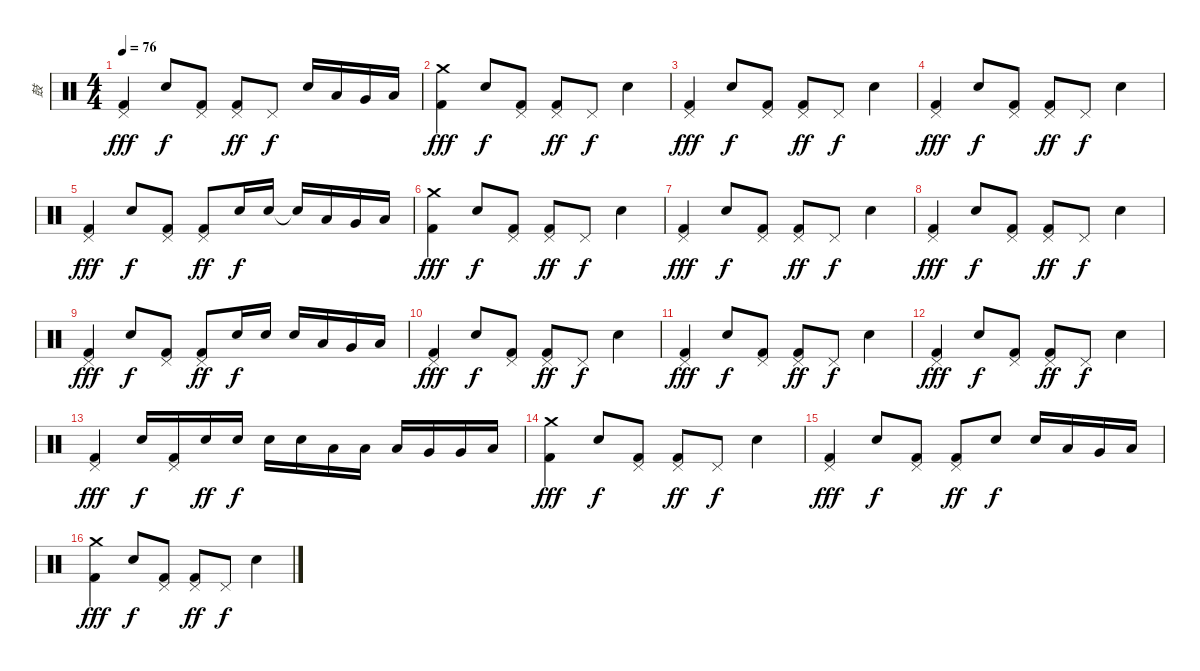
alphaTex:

\track ("鼓" "鼓") {instrument percussion}
\staff {score}
\articulation defaults
\ts (4 4)
\tempo 76
\clef neutral
\ks c
("Kick (hit) 2" "Pedal Hi-Hat (hit)").4{dy fff} "Electric Snare (hit)".8{dy f} ("Kick (hit) 2" "Pedal Hi-Hat (hit)").8 ("Kick (hit) 2" "Pedal Hi-Hat (hit)").8{dy ff} "Pedal Hi-Hat (hit)".8{dy f} "Electric Snare (hit)".16 "Low Tom (hit)".16 "Very Low Tom (hit)".16 "Low Floor Tom (hit)".16 |
("Kick (hit) 2" "Crash medium (hit)").4{dy fff} "Electric Snare (hit)".8{dy f} ("Kick (hit) 2" "Pedal Hi-Hat (hit)").8 ("Kick (hit) 2" "Pedal Hi-Hat (hit)").8{dy ff} "Pedal Hi-Hat (hit)".8{dy f} "Electric Snare (hit)".4 |
("Kick (hit) 2" "Pedal Hi-Hat (hit)").4{dy fff} "Electric Snare (hit)".8{dy f} ("Kick (hit) 2" "Pedal Hi-Hat (hit)").8 ("Kick (hit) 2" "Pedal Hi-Hat (hit)").8{dy ff} "Pedal Hi-Hat (hit)".8{dy f} "Electric Snare (hit)".4 |
("Kick (hit) 2" "Pedal Hi-Hat (hit)").4{dy fff} "Electric Snare (hit)".8{dy f} ("Kick (hit) 2" "Pedal Hi-Hat (hit)").8 ("Kick (hit) 2" "Pedal Hi-Hat (hit)").8{dy ff} "Pedal Hi-Hat (hit)".8{dy f} "Electric Snare (hit)".4 |
("Kick (hit) 2" "Pedal Hi-Hat (hit)").4{dy fff} "Electric Snare (hit)".8{dy f} ("Kick (hit) 2" "Pedal Hi-Hat (hit)").8 ("Kick (hit) 2" "Pedal Hi-Hat (hit)").8{dy ff} "Electric Snare (hit)".16{dy f} "Electric Snare (hit)".16 "Snare (hit)"{t}.16 "Low Tom (hit)".16 "Very Low Tom (hit)".16 "Low Floor Tom (hit)".16 |
("Kick (hit) 2" "Crash medium (hit)").4{dy fff} "Electric Snare (hit)".8{dy f} ("Kick (hit) 2" "Pedal Hi-Hat (hit)").8 ("Kick (hit) 2" "Pedal Hi-Hat (hit)").8{dy ff} "Pedal Hi-Hat (hit)".8{dy f} "Electric Snare (hit)".4 |
("Kick (hit) 2" "Pedal Hi-Hat (hit)").4{dy fff} "Electric Snare (hit)".8{dy f} ("Kick (hit) 2" "Pedal Hi-Hat (hit)").8 ("Kick (hit) 2" "Pedal Hi-Hat (hit)").8{dy ff} "Pedal Hi-Hat (hit)".8{dy f} "Electric Snare (hit)".4 |
("Kick (hit) 2" "Pedal Hi-Hat (hit)").4{dy fff} "Electric Snare (hit)".8{dy f} ("Kick (hit) 2" "Pedal Hi-Hat (hit)").8 ("Kick (hit) 2" "Pedal Hi-Hat (hit)").8{dy ff} "Pedal Hi-Hat (hit)".8{dy f} "Electric Snare (hit)".4 |
("Kick (hit) 2" "Pedal Hi-Hat (hit)").4{dy fff} "Electric Snare (hit)".8{dy f} ("Kick (hit) 2" "Pedal Hi-Hat (hit)").8 ("Kick (hit) 2" "Pedal Hi-Hat (hit)").8{dy ff} "Electric Snare (hit)".16{dy f} "Electric Snare (hit)".16 "Electric Snare (hit)".16 "Low Tom (hit)".16 "Very Low Tom (hit)".16 "Low Floor Tom (hit)".16 |
("Kick (hit) 2" "Pedal Hi-Hat (hit)").4{dy fff} "Electric Snare (hit)".8{dy f} ("Kick (hit) 2" "Pedal Hi-Hat (hit)").8 ("Kick (hit) 2" "Pedal Hi-Hat (hit)").8{dy ff} "Pedal Hi-Hat (hit)".8{dy f} "Electric Snare (hit)".4 |
("Kick (hit) 2" "Pedal Hi-Hat (hit)").4{dy fff} "Electric Snare (hit)".8{dy f} ("Kick (hit) 2" "Pedal Hi-Hat (hit)").8 ("Kick (hit) 2" "Pedal Hi-Hat (hit)").8{dy ff} "Pedal Hi-Hat (hit)".8{dy f} "Electric Snare (hit)".4 |
("Kick (hit) 2" "Pedal Hi-Hat (hit)").4{dy fff} "Electric Snare (hit)".8{dy f} ("Kick (hit) 2" "Pedal Hi-Hat (hit)").8 ("Kick (hit) 2" "Pedal Hi-Hat (hit)").8{dy ff} "Pedal Hi-Hat (hit)".8{dy f} "Electric Snare (hit)".4 |
("Kick (hit) 2" "Pedal Hi-Hat (hit)").4{dy fff} "Electric Snare (hit)".16{dy f} ("Kick (hit) 2" "Pedal Hi-Hat (hit)").16 "Electric Snare (hit)".16{dy ff} "Electric Snare (hit)".16{dy f} "Electric Snare (hit)".16 "Electric Snare (hit)".16 "Low Tom (hit)".16 "Low Tom (hit)".16 "Low Tom (hit)".16 "Very Low Tom (hit)".16 "Very Low Tom (hit)".16 "Low Floor Tom (hit)".16 |
("Kick (hit) 2" "Crash medium (hit)").4{dy fff} "Electric Snare (hit)".8{dy f} ("Kick (hit) 2" "Pedal Hi-Hat (hit)").8 ("Kick (hit) 2" "Pedal Hi-Hat (hit)").8{dy ff} "Pedal Hi-Hat (hit)".8{dy f} "Electric Snare (hit)".4 |
("Kick (hit) 2" "Pedal Hi-Hat (hit)").4{dy fff} "Electric Snare (hit)".8{dy f} ("Kick (hit) 2" "Pedal Hi-Hat (hit)").8 ("Kick (hit) 2" "Pedal Hi-Hat (hit)").8{dy ff} "Electric Snare (hit)".8{dy f} "Electric Snare (hit)".16 "Low Tom (hit)".16 "Very Low Tom (hit)".16 "Low Floor Tom (hit)".16 |
("Kick (hit) 2" "Crash medium (hit)").4{dy fff} "Electric Snare (hit)".8{dy f} ("Kick (hit) 2" "Pedal Hi-Hat (hit)").8 ("Kick (hit) 2" "Pedal Hi-Hat (hit)").8{dy ff} "Pedal Hi-Hat (hit)".8{dy f} "Electric Snare (hit)".4
